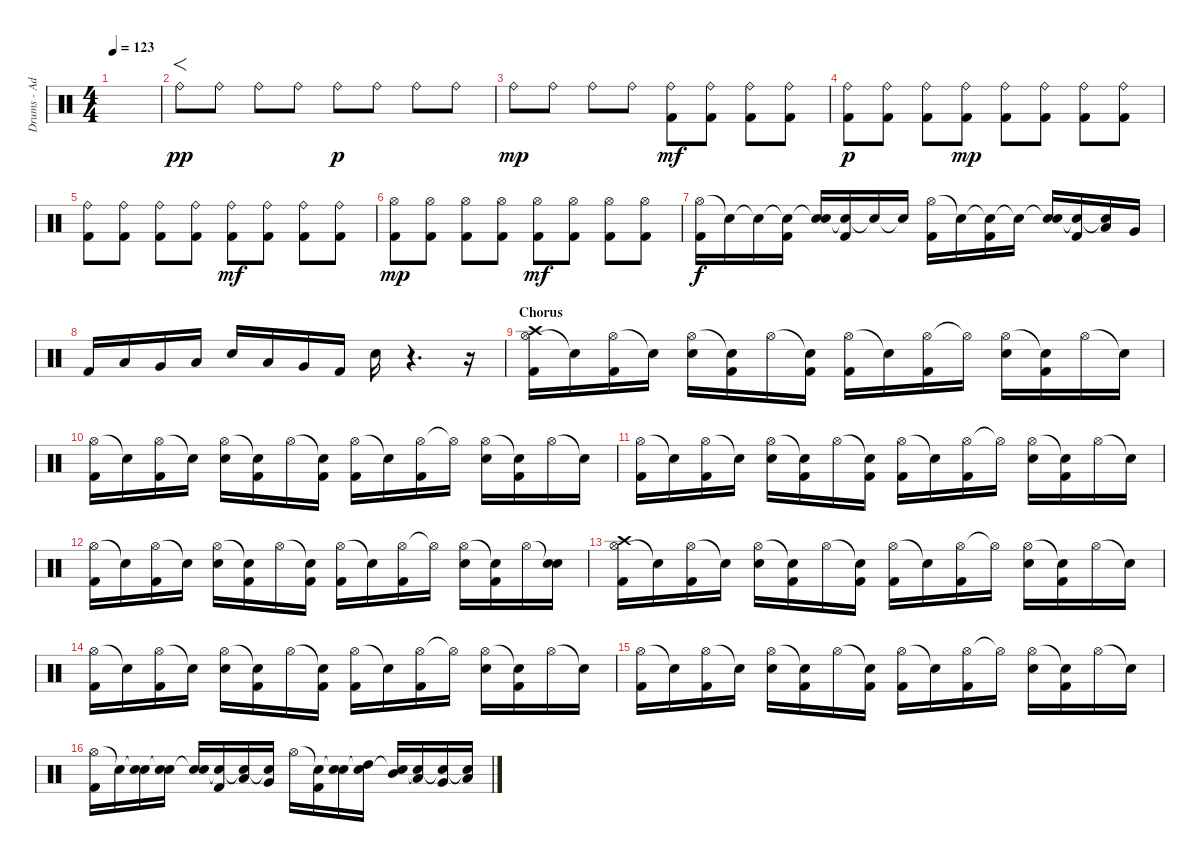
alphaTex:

\track ("Drums - Adam" "Drums - Ad") {instrument percussion}
\staff {score}
\articulation defaults
\ts (4 4)
\tempo 123
\clef neutral
\ks c
|
"Ride (bell)".8{f dy pp} "Ride (bell)".8 "Ride (bell)".8 "Ride (bell)".8 "Ride (bell)".8{dy p} "Ride (bell)".8 "Ride (bell)".8 "Ride (bell)".8 |
"Ride (bell)".8{dy mp} "Ride (bell)".8 "Ride (bell)".8 "Ride (bell)".8 ("Kick (hit) 2" "Ride (bell)").8{dy mf} ("Kick (hit) 2" "Ride (bell)").8 ("Kick (hit) 2" "Ride (bell)").8 ("Kick (hit) 2" "Ride (bell)").8 |
("Kick (hit) 2" "Ride (bell)").8{dy p} ("Kick (hit) 2" "Ride (bell)").8 ("Kick (hit) 2" "Ride (bell)").8 ("Kick (hit) 2" "Ride (bell)").8{dy mp} ("Kick (hit) 2" "Ride (bell)").8 ("Kick (hit) 2" "Ride (bell)").8 ("Kick (hit) 2" "Ride (bell)").8 ("Kick (hit) 2" "Ride (bell)").8 |
("Kick (hit) 2" "Ride (bell)").8 ("Kick (hit) 2" "Ride (bell)").8 ("Kick (hit) 2" "Ride (bell)").8 ("Kick (hit) 2" "Ride (bell)").8 ("Kick (hit) 2" "Ride (bell)").8{dy mf} ("Kick (hit) 2" "Ride (bell)").8 ("Kick (hit) 2" "Ride (bell)").8 ("Kick (hit) 2" "Ride (bell)").8 |
("Hi-Hat (open)" "Kick (hit) 2").8{dy mp} ("Hi-Hat (open)" "Kick (hit) 2").8 ("Hi-Hat (open)" "Kick (hit) 2").8 ("Hi-Hat (open)" "Kick (hit) 2").8 ("Hi-Hat (open)" "Kick (hit) 2").8{dy mf} ("Hi-Hat (open)" "Kick (hit) 2").8 ("Hi-Hat (open)" "Kick (hit) 2").8 ("Hi-Hat (open)" "Kick (hit) 2").8 |
("Hi-Hat (open)" "Kick (hit) 2").16{dy f} "Snare (hit)"{t}.16 "Snare (hit)"{t}.16 ("Snare (hit)"{t} "Kick (hit) 2").16 ("Snare (hit)"{t} "Electric Snare (hit)").16 ("Snare (hit)"{t} "Kick (hit) 2").16 "Snare (hit)"{t}.16 "Snare (hit)"{t}.16 ("Hi-Hat (open)" "Kick (hit) 2").16 "Snare (hit)"{t}.16 ("Snare (hit)"{t} "Kick (hit) 2").16 "Snare (hit)"{t}.16 ("Snare (hit)"{t} "Electric Snare (hit)").16 ("Snare (hit)"{t} "Kick (hit) 2").16 ("Snare (hit)"{t} "Low Tom (hit)").16 "Very Low Tom (hit)".16 |
"Kick (hit) 2".16 "Low Tom (hit)".16 "Very Low Tom (hit)".16 "Low Floor Tom (hit)".16 "Electric Snare (hit)".16 "Low Tom (hit)".16 "Very Low Tom (hit)".16 "Kick (hit) 2".16 "Electric Snare (hit)".16 r.4{d} r.16 |
\section ("" "Chorus")
("Hi-Hat (open)" "Kick (hit) 2" "Crash high (hit)").16 "Snare (hit)"{t}.16 ("Hi-Hat (open)" "Kick (hit) 2").16 "Snare (hit)"{t}.16 ("Hi-Hat (open)" "Electric Snare (hit)").16 ("Snare (hit)"{t} "Kick (hit) 2").16 "Hi-Hat (open)".16 ("Snare (hit)"{t} "Kick (hit) 2").16 ("Hi-Hat (open)" "Kick (hit) 2").16 "Snare (hit)"{t}.16 ("Hi-Hat (open)" "Kick (hit) 2").16 "Hi-Hat (open)"{t}.16 ("Hi-Hat (open)" "Electric Snare (hit)").16 ("Snare (hit)"{t} "Kick (hit) 2").16 "Hi-Hat (open)".16 "Snare (hit)"{t}.16 |
("Hi-Hat (open)" "Kick (hit) 2").16 "Snare (hit)"{t}.16 ("Hi-Hat (open)" "Kick (hit) 2").16 "Snare (hit)"{t}.16 ("Hi-Hat (open)" "Electric Snare (hit)").16 ("Snare (hit)"{t} "Kick (hit) 2").16 "Hi-Hat (open)".16 ("Snare (hit)"{t} "Kick (hit) 2").16 ("Hi-Hat (open)" "Kick (hit) 2").16 "Snare (hit)"{t}.16 ("Hi-Hat (open)" "Kick (hit) 2").16 "Hi-Hat (open)"{t}.16 ("Hi-Hat (open)" "Electric Snare (hit)").16 ("Snare (hit)"{t} "Kick (hit) 2").16 "Hi-Hat (open)".16 "Snare (hit)"{t}.16 |
("Hi-Hat (open)" "Kick (hit) 2").16 "Snare (hit)"{t}.16 ("Hi-Hat (open)" "Kick (hit) 2").16 "Snare (hit)"{t}.16 ("Hi-Hat (open)" "Electric Snare (hit)").16 ("Snare (hit)"{t} "Kick (hit) 2").16 "Hi-Hat (open)".16 ("Snare (hit)"{t} "Kick (hit) 2").16 ("Hi-Hat (open)" "Kick (hit) 2").16 "Snare (hit)"{t}.16 ("Hi-Hat (open)" "Kick (hit) 2").16 "Hi-Hat (open)"{t}.16 ("Hi-Hat (open)" "Electric Snare (hit)").16 ("Snare (hit)"{t} "Kick (hit) 2").16 "Hi-Hat (open)".16 "Snare (hit)"{t}.16 |
("Hi-Hat (open)" "Kick (hit) 2").16 "Snare (hit)"{t}.16 ("Hi-Hat (open)" "Kick (hit) 2").16 "Snare (hit)"{t}.16 ("Hi-Hat (open)" "Electric Snare (hit)").16 ("Snare (hit)"{t} "Kick (hit) 2").16 "Hi-Hat (open)".16 ("Snare (hit)"{t} "Kick (hit) 2").16 ("Hi-Hat (open)" "Kick (hit) 2").16 "Snare (hit)"{t}.16 ("Hi-Hat (open)" "Kick (hit) 2").16 "Hi-Hat (open)"{t}.16 ("Hi-Hat (open)" "Electric Snare (hit)").16 ("Snare (hit)"{t} "Kick (hit) 2").16 "Hi-Hat (open)".16 ("Snare (hit)"{t} "Electric Snare (hit)").16 |
("Hi-Hat (open)" "Kick (hit) 2" "Crash high (hit)").16 "Snare (hit)"{t}.16 ("Hi-Hat (open)" "Kick (hit) 2").16 "Snare (hit)"{t}.16 ("Hi-Hat (open)" "Electric Snare (hit)").16 ("Snare (hit)"{t} "Kick (hit) 2").16 "Hi-Hat (open)".16 ("Snare (hit)"{t} "Kick (hit) 2").16 ("Hi-Hat (open)" "Kick (hit) 2").16 "Snare (hit)"{t}.16 ("Hi-Hat (open)" "Kick (hit) 2").16 "Hi-Hat (open)"{t}.16 ("Hi-Hat (open)" "Electric Snare (hit)").16 ("Snare (hit)"{t} "Kick (hit) 2").16 "Hi-Hat (open)".16 "Snare (hit)"{t}.16 |
("Hi-Hat (open)" "Kick (hit) 2").16 "Snare (hit)"{t}.16 ("Hi-Hat (open)" "Kick (hit) 2").16 "Snare (hit)"{t}.16 ("Hi-Hat (open)" "Electric Snare (hit)").16 ("Snare (hit)"{t} "Kick (hit) 2").16 "Hi-Hat (open)".16 ("Snare (hit)"{t} "Kick (hit) 2").16 ("Hi-Hat (open)" "Kick (hit) 2").16 "Snare (hit)"{t}.16 ("Hi-Hat (open)" "Kick (hit) 2").16 "Hi-Hat (open)"{t}.16 ("Hi-Hat (open)" "Electric Snare (hit)").16 ("Snare (hit)"{t} "Kick (hit) 2").16 "Hi-Hat (open)".16 "Snare (hit)"{t}.16 |
("Hi-Hat (open)" "Kick (hit) 2").16 "Snare (hit)"{t}.16 ("Hi-Hat (open)" "Kick (hit) 2").16 "Snare (hit)"{t}.16 ("Hi-Hat (open)" "Electric Snare (hit)").16 ("Snare (hit)"{t} "Kick (hit) 2").16 "Hi-Hat (open)".16 ("Snare (hit)"{t} "Kick (hit) 2").16 ("Hi-Hat (open)" "Kick (hit) 2").16 "Snare (hit)"{t}.16 ("Hi-Hat (open)" "Kick (hit) 2").16 "Hi-Hat (open)"{t}.16 ("Hi-Hat (open)" "Electric Snare (hit)").16 ("Snare (hit)"{t} "Kick (hit) 2").16 "Hi-Hat (open)".16 "Snare (hit)"{t}.16 |
("Hi-Hat (open)" "Kick (hit) 2").16 "Snare (hit)"{t}.16 ("Snare (hit)"{t} "Electric Snare (hit)").16 ("Snare (hit)"{t} "Electric Snare (hit)").16 ("Snare (hit)"{t} "Electric Snare (hit)").16 ("Snare (hit)"{t} "Kick (hit) 2").16 ("Snare (hit)"{t} "Low Tom (hit)").16 ("Snare (hit)"{t} "Very Low Tom (hit)").16 "Hi-Hat (open)".16 ("Snare (hit)"{t} "Kick (hit) 2").16 ("Snare (hit)"{t} "Electric Snare (hit)").16 ("Snare (hit)"{t} "High Tom (hit)").16 ("Snare (hit)"{t} "Mid Tom (hit)").16 ("Snare (hit)"{t} "Low Tom (hit)").16 ("Snare (hit)"{t} "Very Low Tom (hit)").16 ("Snare (hit)"{t} "Low Floor Tom (hit)").16
